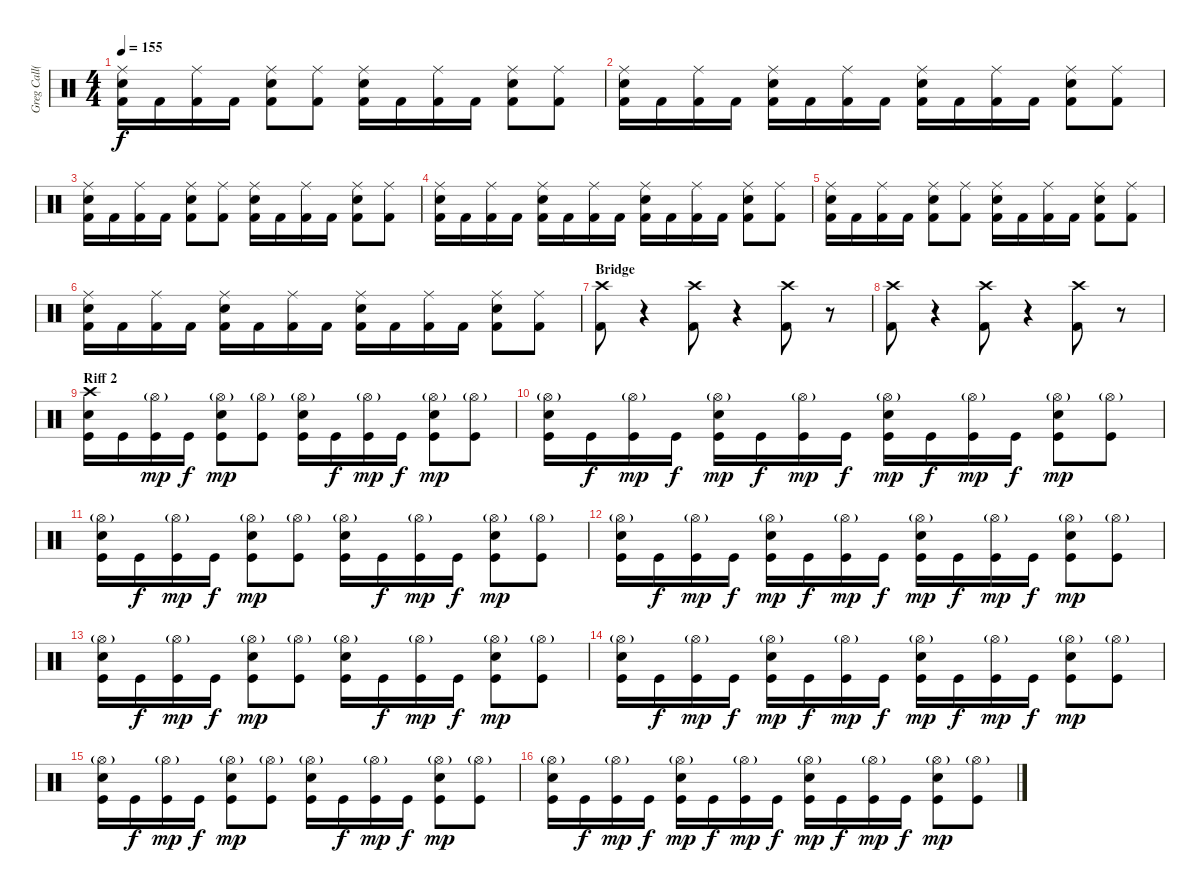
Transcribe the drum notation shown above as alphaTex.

\track ("Greg Call(Drums)" "Greg Call(") {instrument percussion}
\staff {score}
\articulation defaults
\ts (4 4)
\tempo 155
\clef neutral
\ks c
("Kick (hit) 2" "Ride (middle)" "Snare (hit) 2").16{dy f} "Kick (hit) 2".16 ("Ride (middle)" "Kick (hit) 2").16 "Kick (hit) 2".16 ("Kick (hit) 2" "Ride (middle)" "Snare (hit) 2").8 ("Ride (middle)" "Kick (hit) 2").8 ("Kick (hit) 2" "Ride (middle)" "Snare (hit) 2").16 "Kick (hit) 2".16 ("Ride (middle)" "Kick (hit) 2").16 "Kick (hit) 2".16 ("Ride (middle)" "Snare (hit) 2" "Kick (hit) 2").8 ("Ride (middle)" "Kick (hit) 2").8 |
("Kick (hit) 2" "Ride (middle)" "Snare (hit) 2").16 "Kick (hit) 2".16 ("Ride (middle)" "Kick (hit) 2").16 "Kick (hit) 2".16 ("Kick (hit) 2" "Ride (middle)" "Snare (hit) 2").16 "Kick (hit) 2".16 ("Ride (middle)" "Kick (hit) 2").16 "Kick (hit) 2".16 ("Kick (hit) 2" "Ride (middle)" "Snare (hit) 2").16 "Kick (hit) 2".16 ("Ride (middle)" "Kick (hit) 2").16 "Kick (hit) 2".16 ("Ride (middle)" "Snare (hit) 2" "Kick (hit) 2").8 ("Ride (middle)" "Kick (hit) 2").8 |
("Kick (hit) 2" "Ride (middle)" "Snare (hit) 2").16 "Kick (hit) 2".16 ("Ride (middle)" "Kick (hit) 2").16 "Kick (hit) 2".16 ("Kick (hit) 2" "Ride (middle)" "Snare (hit) 2").8 ("Ride (middle)" "Kick (hit) 2").8 ("Kick (hit) 2" "Ride (middle)" "Snare (hit) 2").16 "Kick (hit) 2".16 ("Ride (middle)" "Kick (hit) 2").16 "Kick (hit) 2".16 ("Ride (middle)" "Snare (hit) 2" "Kick (hit) 2").8 ("Ride (middle)" "Kick (hit) 2").8 |
("Kick (hit) 2" "Ride (middle)" "Snare (hit) 2").16 "Kick (hit) 2".16 ("Ride (middle)" "Kick (hit) 2").16 "Kick (hit) 2".16 ("Kick (hit) 2" "Ride (middle)" "Snare (hit) 2").16 "Kick (hit) 2".16 ("Ride (middle)" "Kick (hit) 2").16 "Kick (hit) 2".16 ("Kick (hit) 2" "Ride (middle)" "Snare (hit) 2").16 "Kick (hit) 2".16 ("Ride (middle)" "Kick (hit) 2").16 "Kick (hit) 2".16 ("Ride (middle)" "Snare (hit) 2" "Kick (hit) 2").8 ("Ride (middle)" "Kick (hit) 2").8 |
("Kick (hit) 2" "Ride (middle)" "Snare (hit) 2").16 "Kick (hit) 2".16 ("Ride (middle)" "Kick (hit) 2").16 "Kick (hit) 2".16 ("Kick (hit) 2" "Ride (middle)" "Snare (hit) 2").8 ("Ride (middle)" "Kick (hit) 2").8 ("Kick (hit) 2" "Ride (middle)" "Snare (hit) 2").16 "Kick (hit) 2".16 ("Ride (middle)" "Kick (hit) 2").16 "Kick (hit) 2".16 ("Ride (middle)" "Snare (hit) 2" "Kick (hit) 2").8 ("Ride (middle)" "Kick (hit) 2").8 |
("Kick (hit) 2" "Ride (middle)" "Snare (hit) 2").16 "Kick (hit) 2".16 ("Ride (middle)" "Kick (hit) 2").16 "Kick (hit) 2".16 ("Kick (hit) 2" "Ride (middle)" "Snare (hit) 2").16 "Kick (hit) 2".16 ("Ride (middle)" "Kick (hit) 2").16 "Kick (hit) 2".16 ("Kick (hit) 2" "Ride (middle)" "Snare (hit) 2").16 "Kick (hit) 2".16 ("Ride (middle)" "Kick (hit) 2").16 "Kick (hit) 2".16 ("Ride (middle)" "Snare (hit) 2" "Kick (hit) 2").8 ("Ride (middle)" "Kick (hit) 2").8 |
\section ("" "Bridge")
("Crash high (hit)" "Kick (hit) 2").8 r.4{volume 0} ("Crash high (hit)" "Kick (hit) 2").8{volume 13} r.4{volume 0} ("Crash high (hit)" "Kick (hit) 2").8{volume 13} r.8{volume 0} |
("Crash high (hit)" "Kick (hit) 2").8{volume 13} r.4{volume 0} ("Crash high (hit)" "Kick (hit) 2").8{volume 13} r.4{volume 0} ("Crash high (hit)" "Kick (hit) 2").8{volume 13} r.8{volume 0} |
\section ("" "Riff 2")
("Kick (hit)" "Crash high (hit)" "Snare (hit) 2").16{volume 13} "Kick (hit)".16 ("Hi-Hat (open)"{g} "Kick (hit)").16{dy mp} "Kick (hit)".16{dy f} ("Kick (hit)" "Hi-Hat (open)"{g} "Snare (hit) 2").8{dy mp} ("Hi-Hat (open)"{g} "Kick (hit)").8 ("Kick (hit)" "Hi-Hat (open)"{g} "Snare (hit) 2").16 "Kick (hit)".16{dy f} ("Hi-Hat (open)"{g} "Kick (hit)").16{dy mp} "Kick (hit)".16{dy f} ("Kick (hit)" "Hi-Hat (open)"{g} "Snare (hit) 2").8{dy mp} ("Hi-Hat (open)"{g} "Kick (hit)").8 |
("Kick (hit)" "Hi-Hat (open)"{g} "Snare (hit) 2").16 "Kick (hit)".16{dy f} ("Hi-Hat (open)"{g} "Kick (hit)").16{dy mp} "Kick (hit)".16{dy f} ("Kick (hit)" "Hi-Hat (open)"{g} "Snare (hit) 2").16{dy mp} "Kick (hit)".16{dy f} ("Hi-Hat (open)"{g} "Kick (hit)").16{dy mp} "Kick (hit)".16{dy f} ("Kick (hit)" "Hi-Hat (open)"{g} "Snare (hit) 2").16{dy mp} "Kick (hit)".16{dy f} ("Hi-Hat (open)"{g} "Kick (hit)").16{dy mp} "Kick (hit)".16{dy f} ("Kick (hit)" "Hi-Hat (open)"{g} "Snare (hit) 2").8{dy mp} ("Hi-Hat (open)"{g} "Kick (hit)").8 |
("Kick (hit)" "Hi-Hat (open)"{g} "Snare (hit) 2").16{volume 13} "Kick (hit)".16{dy f} ("Hi-Hat (open)"{g} "Kick (hit)").16{dy mp} "Kick (hit)".16{dy f} ("Kick (hit)" "Hi-Hat (open)"{g} "Snare (hit) 2").8{dy mp} ("Hi-Hat (open)"{g} "Kick (hit)").8 ("Kick (hit)" "Hi-Hat (open)"{g} "Snare (hit) 2").16 "Kick (hit)".16{dy f} ("Hi-Hat (open)"{g} "Kick (hit)").16{dy mp} "Kick (hit)".16{dy f} ("Kick (hit)" "Hi-Hat (open)"{g} "Snare (hit) 2").8{dy mp} ("Hi-Hat (open)"{g} "Kick (hit)").8 |
("Kick (hit)" "Hi-Hat (open)"{g} "Snare (hit) 2").16 "Kick (hit)".16{dy f} ("Hi-Hat (open)"{g} "Kick (hit)").16{dy mp} "Kick (hit)".16{dy f} ("Kick (hit)" "Hi-Hat (open)"{g} "Snare (hit) 2").16{dy mp} "Kick (hit)".16{dy f} ("Hi-Hat (open)"{g} "Kick (hit)").16{dy mp} "Kick (hit)".16{dy f} ("Kick (hit)" "Hi-Hat (open)"{g} "Snare (hit) 2").16{dy mp} "Kick (hit)".16{dy f} ("Hi-Hat (open)"{g} "Kick (hit)").16{dy mp} "Kick (hit)".16{dy f} ("Kick (hit)" "Hi-Hat (open)"{g} "Snare (hit) 2").8{dy mp} ("Hi-Hat (open)"{g} "Kick (hit)").8 |
("Kick (hit)" "Hi-Hat (open)"{g} "Snare (hit) 2").16{volume 13} "Kick (hit)".16{dy f} ("Hi-Hat (open)"{g} "Kick (hit)").16{dy mp} "Kick (hit)".16{dy f} ("Kick (hit)" "Hi-Hat (open)"{g} "Snare (hit) 2").8{dy mp} ("Hi-Hat (open)"{g} "Kick (hit)").8 ("Kick (hit)" "Hi-Hat (open)"{g} "Snare (hit) 2").16 "Kick (hit)".16{dy f} ("Hi-Hat (open)"{g} "Kick (hit)").16{dy mp} "Kick (hit)".16{dy f} ("Kick (hit)" "Hi-Hat (open)"{g} "Snare (hit) 2").8{dy mp} ("Hi-Hat (open)"{g} "Kick (hit)").8 |
("Kick (hit)" "Hi-Hat (open)"{g} "Snare (hit) 2").16 "Kick (hit)".16{dy f} ("Hi-Hat (open)"{g} "Kick (hit)").16{dy mp} "Kick (hit)".16{dy f} ("Kick (hit)" "Hi-Hat (open)"{g} "Snare (hit) 2").16{dy mp} "Kick (hit)".16{dy f} ("Hi-Hat (open)"{g} "Kick (hit)").16{dy mp} "Kick (hit)".16{dy f} ("Kick (hit)" "Hi-Hat (open)"{g} "Snare (hit) 2").16{dy mp} "Kick (hit)".16{dy f} ("Hi-Hat (open)"{g} "Kick (hit)").16{dy mp} "Kick (hit)".16{dy f} ("Kick (hit)" "Hi-Hat (open)"{g} "Snare (hit) 2").8{dy mp} ("Hi-Hat (open)"{g} "Kick (hit)").8 |
("Kick (hit)" "Hi-Hat (open)"{g} "Snare (hit) 2").16{volume 13} "Kick (hit)".16{dy f} ("Hi-Hat (open)"{g} "Kick (hit)").16{dy mp} "Kick (hit)".16{dy f} ("Kick (hit)" "Hi-Hat (open)"{g} "Snare (hit) 2").8{dy mp} ("Hi-Hat (open)"{g} "Kick (hit)").8 ("Kick (hit)" "Hi-Hat (open)"{g} "Snare (hit) 2").16 "Kick (hit)".16{dy f} ("Hi-Hat (open)"{g} "Kick (hit)").16{dy mp} "Kick (hit)".16{dy f} ("Kick (hit)" "Hi-Hat (open)"{g} "Snare (hit) 2").8{dy mp} ("Hi-Hat (open)"{g} "Kick (hit)").8 |
("Kick (hit)" "Hi-Hat (open)"{g} "Snare (hit) 2").16 "Kick (hit)".16{dy f} ("Hi-Hat (open)"{g} "Kick (hit)").16{dy mp} "Kick (hit)".16{dy f} ("Kick (hit)" "Hi-Hat (open)"{g} "Snare (hit) 2").16{dy mp} "Kick (hit)".16{dy f} ("Hi-Hat (open)"{g} "Kick (hit)").16{dy mp} "Kick (hit)".16{dy f} ("Kick (hit)" "Hi-Hat (open)"{g} "Snare (hit) 2").16{dy mp} "Kick (hit)".16{dy f} ("Hi-Hat (open)"{g} "Kick (hit)").16{dy mp} "Kick (hit)".16{dy f} ("Kick (hit)" "Hi-Hat (open)"{g} "Snare (hit) 2").8{dy mp} ("Hi-Hat (open)"{g} "Kick (hit)").8
